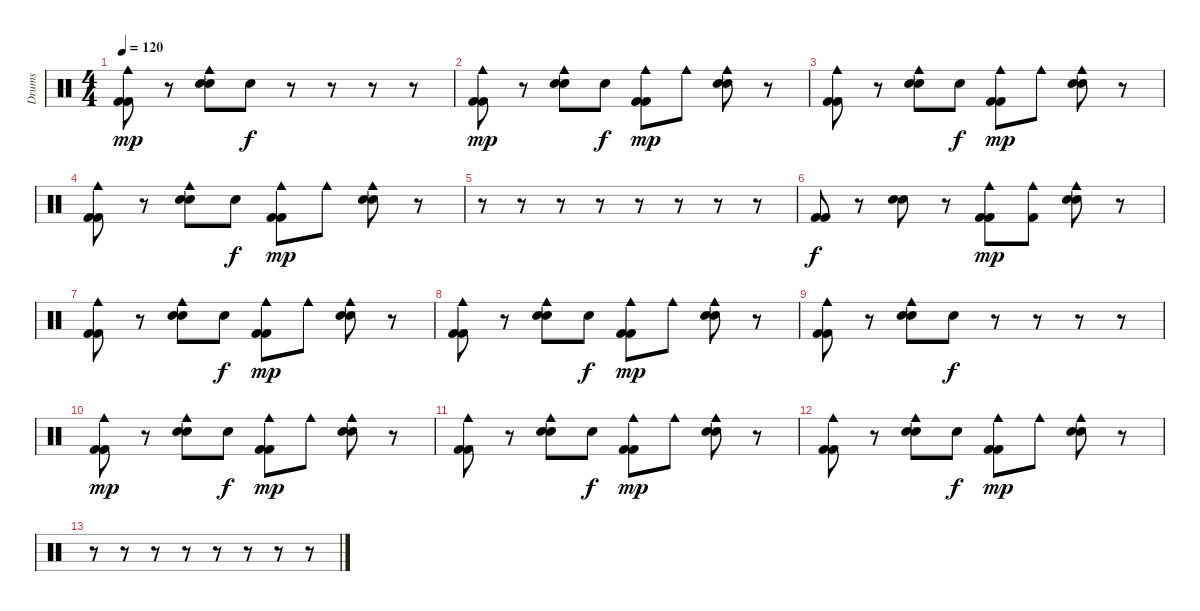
\track ("Drums" "Drums") {instrument percussion}
\staff {score}
\articulation defaults
\ts (4 4)
\tempo 120
\clef neutral
\ks c
("Kick (hit) 2" "Kick (hit) 2" "Cowbell medium (hit)").8{dy mp} r.8 ("Snare (hit) 2" "Snare (hit) 2" "Cowbell medium (hit)").8 "Snare (hit) 2".8{dy f} r.8 r.8 r.8 r.8 |
("Kick (hit) 2" "Kick (hit) 2" "Cowbell medium (hit)").8{dy mp} r.8 ("Snare (hit) 2" "Snare (hit) 2" "Cowbell medium (hit)").8 "Snare (hit) 2".8{dy f} ("Kick (hit) 2" "Kick (hit) 2" "Cowbell medium (hit)").8{dy mp} "Cowbell medium (hit)".8 ("Snare (hit) 2" "Snare (hit) 2" "Cowbell medium (hit)").8 r.8 |
("Kick (hit) 2" "Kick (hit) 2" "Cowbell medium (hit)").8 r.8 ("Snare (hit) 2" "Snare (hit) 2" "Cowbell medium (hit)").8 "Snare (hit) 2".8{dy f} ("Kick (hit) 2" "Kick (hit) 2" "Cowbell medium (hit)").8{dy mp} "Cowbell medium (hit)".8 ("Snare (hit) 2" "Snare (hit) 2" "Cowbell medium (hit)").8 r.8 |
("Kick (hit) 2" "Kick (hit) 2" "Cowbell medium (hit)").8 r.8 ("Snare (hit) 2" "Snare (hit) 2" "Cowbell medium (hit)").8 "Snare (hit) 2".8{dy f} ("Kick (hit) 2" "Kick (hit) 2" "Cowbell medium (hit)").8{dy mp} "Cowbell medium (hit)".8 ("Snare (hit) 2" "Snare (hit) 2" "Cowbell medium (hit)").8 r.8 |
r.8 r.8 r.8 r.8 r.8 r.8 r.8 r.8 |
("Kick (hit) 2" "Kick (hit) 2").8{dy f} r.8 ("Snare (hit) 2" "Snare (hit) 2").8 r.8 ("Kick (hit) 2" "Kick (hit) 2" "Cowbell medium (hit)").8{dy mp} ("Kick (hit) 2" "Cowbell medium (hit)").8 ("Snare (hit) 2" "Snare (hit) 2" "Cowbell medium (hit)").8 r.8 |
("Kick (hit) 2" "Kick (hit) 2" "Cowbell medium (hit)").8 r.8 ("Snare (hit) 2" "Snare (hit) 2" "Cowbell medium (hit)").8 "Snare (hit) 2".8{dy f} ("Kick (hit) 2" "Kick (hit) 2" "Cowbell medium (hit)").8{dy mp} "Cowbell medium (hit)".8 ("Snare (hit) 2" "Snare (hit) 2" "Cowbell medium (hit)").8 r.8 |
("Kick (hit) 2" "Kick (hit) 2" "Cowbell medium (hit)").8 r.8 ("Snare (hit) 2" "Snare (hit) 2" "Cowbell medium (hit)").8 "Snare (hit) 2".8{dy f} ("Kick (hit) 2" "Kick (hit) 2" "Cowbell medium (hit)").8{dy mp} "Cowbell medium (hit)".8 ("Snare (hit) 2" "Snare (hit) 2" "Cowbell medium (hit)").8 r.8 |
("Kick (hit) 2" "Kick (hit) 2" "Cowbell medium (hit)").8 r.8 ("Snare (hit) 2" "Snare (hit) 2" "Cowbell medium (hit)").8 "Snare (hit) 2".8{dy f} r.8 r.8 r.8 r.8 |
("Kick (hit) 2" "Kick (hit) 2" "Cowbell medium (hit)").8{dy mp} r.8 ("Snare (hit) 2" "Snare (hit) 2" "Cowbell medium (hit)").8 "Snare (hit) 2".8{dy f} ("Kick (hit) 2" "Kick (hit) 2" "Cowbell medium (hit)").8{dy mp} "Cowbell medium (hit)".8 ("Snare (hit) 2" "Snare (hit) 2" "Cowbell medium (hit)").8 r.8 |
("Kick (hit) 2" "Kick (hit) 2" "Cowbell medium (hit)").8 r.8 ("Snare (hit) 2" "Snare (hit) 2" "Cowbell medium (hit)").8 "Snare (hit) 2".8{dy f} ("Kick (hit) 2" "Kick (hit) 2" "Cowbell medium (hit)").8{dy mp} "Cowbell medium (hit)".8 ("Snare (hit) 2" "Snare (hit) 2" "Cowbell medium (hit)").8 r.8 |
("Kick (hit) 2" "Kick (hit) 2" "Cowbell medium (hit)").8 r.8 ("Snare (hit) 2" "Snare (hit) 2" "Cowbell medium (hit)").8 "Snare (hit) 2".8{dy f} ("Kick (hit) 2" "Kick (hit) 2" "Cowbell medium (hit)").8{dy mp} "Cowbell medium (hit)".8 ("Snare (hit) 2" "Snare (hit) 2" "Cowbell medium (hit)").8 r.8 |
r.8 r.8 r.8 r.8 r.8 r.8 r.8 r.8
